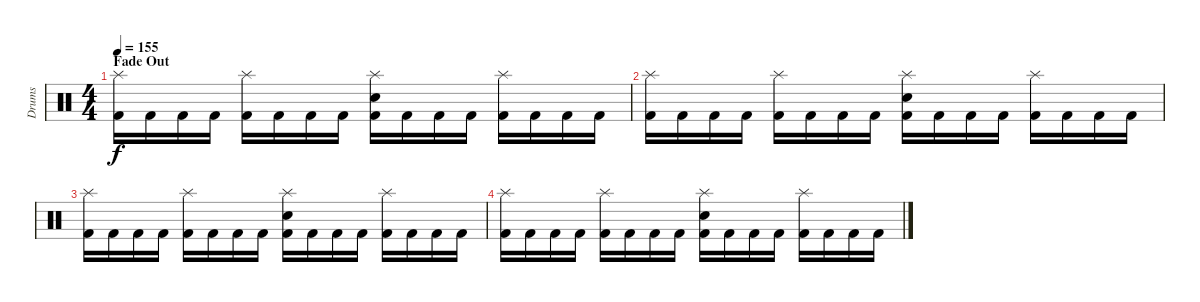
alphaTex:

\track ("Drums" "Drums") {instrument percussion}
\staff {score}
\articulation defaults
\ts (4 4)
\section ("" "Fade Out")
\tempo 155
\clef neutral
\ks c
("Splash (hit)" "Kick (hit) 2").16{dy f} "Kick (hit) 2".16 "Kick (hit) 2".16 "Kick (hit) 2".16 ("Splash (hit)" "Kick (hit) 2").16 "Kick (hit) 2".16 "Kick (hit) 2".16 "Kick (hit) 2".16 ("Splash (hit)" "Electric Snare (hit)" "Kick (hit) 2").16 "Kick (hit) 2".16 "Kick (hit) 2".16 "Kick (hit) 2".16 ("Splash (hit)" "Kick (hit) 2").16 "Kick (hit) 2".16 "Kick (hit) 2".16 "Kick (hit) 2".16 |
("Splash (hit)" "Kick (hit) 2").16 "Kick (hit) 2".16 "Kick (hit) 2".16 "Kick (hit) 2".16 ("Splash (hit)" "Kick (hit) 2").16 "Kick (hit) 2".16 "Kick (hit) 2".16 "Kick (hit) 2".16 ("Splash (hit)" "Electric Snare (hit)" "Kick (hit) 2").16 "Kick (hit) 2".16 "Kick (hit) 2".16 "Kick (hit) 2".16 ("Splash (hit)" "Kick (hit) 2").16 "Kick (hit) 2".16 "Kick (hit) 2".16 "Kick (hit) 2".16 |
("Splash (hit)" "Kick (hit) 2").16 "Kick (hit) 2".16 "Kick (hit) 2".16 "Kick (hit) 2".16 ("Splash (hit)" "Kick (hit) 2").16 "Kick (hit) 2".16 "Kick (hit) 2".16 "Kick (hit) 2".16 ("Splash (hit)" "Electric Snare (hit)" "Kick (hit) 2").16 "Kick (hit) 2".16 "Kick (hit) 2".16 "Kick (hit) 2".16 ("Splash (hit)" "Kick (hit) 2").16 "Kick (hit) 2".16 "Kick (hit) 2".16 "Kick (hit) 2".16 |
("Splash (hit)" "Kick (hit) 2").16 "Kick (hit) 2".16 "Kick (hit) 2".16 "Kick (hit) 2".16 ("Splash (hit)" "Kick (hit) 2").16 "Kick (hit) 2".16 "Kick (hit) 2".16 "Kick (hit) 2".16 ("Splash (hit)" "Electric Snare (hit)" "Kick (hit) 2").16 "Kick (hit) 2".16 "Kick (hit) 2".16 "Kick (hit) 2".16 ("Splash (hit)" "Kick (hit) 2").16 "Kick (hit) 2".16 "Kick (hit) 2".16 "Kick (hit) 2".16
